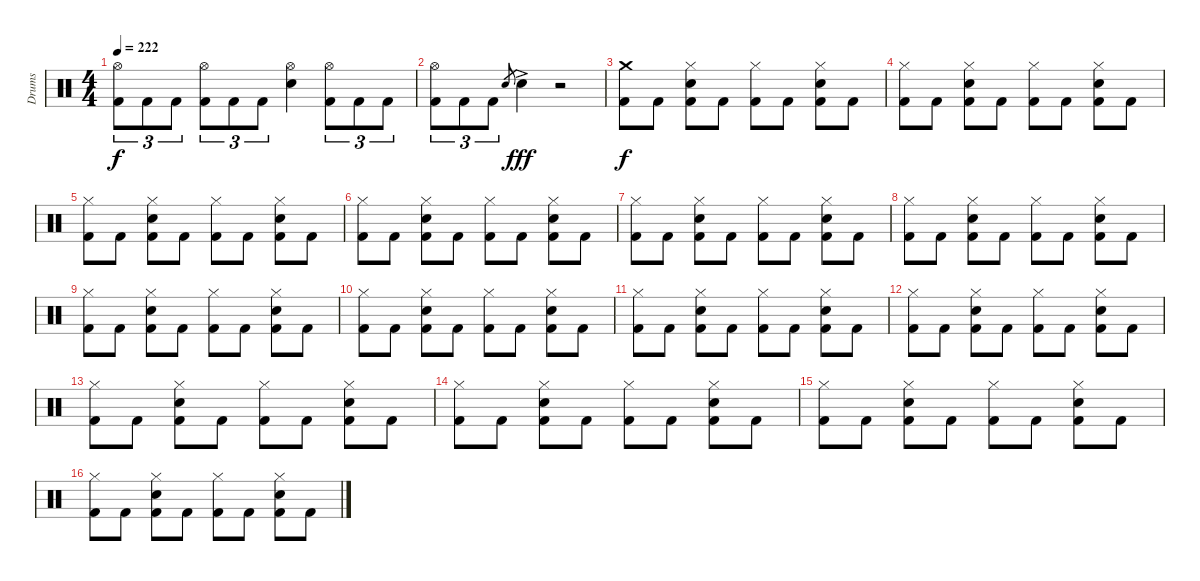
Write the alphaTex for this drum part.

\track ("Drums" "Drums") {instrument percussion}
\staff {score}
\articulation defaults
\ts (4 4)
\tempo 222
\clef neutral
\ks c
("Hi-Hat (open)" "Kick (hit) 2").8{tu (3 2) dy f} "Kick (hit) 2".8{tu (3 2)} "Kick (hit) 2".8{tu (3 2)} ("Hi-Hat (open)" "Kick (hit) 2").8{tu (3 2)} "Kick (hit) 2".8{tu (3 2)} "Kick (hit) 2".8{tu (3 2)} ("Hi-Hat (open)" "Electric Snare (hit)").4 ("Hi-Hat (open)" "Kick (hit) 2").8{tu (3 2)} "Kick (hit) 2".8{tu (3 2)} "Kick (hit) 2".8{tu (3 2)} |
("Hi-Hat (open)" "Kick (hit) 2").8{tu (3 2)} "Kick (hit) 2".8{tu (3 2)} "Kick (hit) 2".8{tu (3 2)} "Electric Snare (hit)".8{gr} "Electric Snare (hit)"{ac}.4{dy fff} r.2 |
("Crash medium (hit)" "Kick (hit) 2").8{dy f} "Kick (hit) 2".8 ("Hi-Hat (closed)" "Electric Snare (hit)" "Kick (hit) 2").8 "Kick (hit) 2".8 ("Hi-Hat (closed)" "Kick (hit) 2").8 "Kick (hit) 2".8 ("Hi-Hat (closed)" "Electric Snare (hit)" "Kick (hit) 2").8 "Kick (hit) 2".8 |
("Hi-Hat (closed)" "Kick (hit) 2").8 "Kick (hit) 2".8 ("Hi-Hat (closed)" "Electric Snare (hit)" "Kick (hit) 2").8 "Kick (hit) 2".8 ("Hi-Hat (closed)" "Kick (hit) 2").8 "Kick (hit) 2".8 ("Hi-Hat (closed)" "Electric Snare (hit)" "Kick (hit) 2").8 "Kick (hit) 2".8 |
("Hi-Hat (closed)" "Kick (hit) 2").8 "Kick (hit) 2".8 ("Hi-Hat (closed)" "Electric Snare (hit)" "Kick (hit) 2").8 "Kick (hit) 2".8 ("Hi-Hat (closed)" "Kick (hit) 2").8 "Kick (hit) 2".8 ("Hi-Hat (closed)" "Electric Snare (hit)" "Kick (hit) 2").8 "Kick (hit) 2".8 |
("Hi-Hat (closed)" "Kick (hit) 2").8 "Kick (hit) 2".8 ("Hi-Hat (closed)" "Electric Snare (hit)" "Kick (hit) 2").8 "Kick (hit) 2".8 ("Hi-Hat (closed)" "Kick (hit) 2").8 "Kick (hit) 2".8 ("Hi-Hat (closed)" "Electric Snare (hit)" "Kick (hit) 2").8 "Kick (hit) 2".8 |
("Hi-Hat (closed)" "Kick (hit) 2").8 "Kick (hit) 2".8 ("Hi-Hat (closed)" "Electric Snare (hit)" "Kick (hit) 2").8 "Kick (hit) 2".8 ("Hi-Hat (closed)" "Kick (hit) 2").8 "Kick (hit) 2".8 ("Hi-Hat (closed)" "Electric Snare (hit)" "Kick (hit) 2").8 "Kick (hit) 2".8 |
("Hi-Hat (closed)" "Kick (hit) 2").8 "Kick (hit) 2".8 ("Hi-Hat (closed)" "Electric Snare (hit)" "Kick (hit) 2").8 "Kick (hit) 2".8 ("Hi-Hat (closed)" "Kick (hit) 2").8 "Kick (hit) 2".8 ("Hi-Hat (closed)" "Electric Snare (hit)" "Kick (hit) 2").8 "Kick (hit) 2".8 |
("Hi-Hat (closed)" "Kick (hit) 2").8 "Kick (hit) 2".8 ("Hi-Hat (closed)" "Electric Snare (hit)" "Kick (hit) 2").8 "Kick (hit) 2".8 ("Hi-Hat (closed)" "Kick (hit) 2").8 "Kick (hit) 2".8 ("Hi-Hat (closed)" "Electric Snare (hit)" "Kick (hit) 2").8 "Kick (hit) 2".8 |
("Hi-Hat (closed)" "Kick (hit) 2").8 "Kick (hit) 2".8 ("Hi-Hat (closed)" "Electric Snare (hit)" "Kick (hit) 2").8 "Kick (hit) 2".8 ("Hi-Hat (closed)" "Kick (hit) 2").8 "Kick (hit) 2".8 ("Hi-Hat (closed)" "Electric Snare (hit)" "Kick (hit) 2").8 "Kick (hit) 2".8 |
("Hi-Hat (closed)" "Kick (hit) 2").8 "Kick (hit) 2".8 ("Hi-Hat (closed)" "Electric Snare (hit)" "Kick (hit) 2").8 "Kick (hit) 2".8 ("Hi-Hat (closed)" "Kick (hit) 2").8 "Kick (hit) 2".8 ("Hi-Hat (closed)" "Electric Snare (hit)" "Kick (hit) 2").8 "Kick (hit) 2".8 |
("Hi-Hat (closed)" "Kick (hit) 2").8 "Kick (hit) 2".8 ("Hi-Hat (closed)" "Electric Snare (hit)" "Kick (hit) 2").8 "Kick (hit) 2".8 ("Hi-Hat (closed)" "Kick (hit) 2").8 "Kick (hit) 2".8 ("Hi-Hat (closed)" "Electric Snare (hit)" "Kick (hit) 2").8 "Kick (hit) 2".8 |
("Hi-Hat (closed)" "Kick (hit) 2").8 "Kick (hit) 2".8 ("Hi-Hat (closed)" "Electric Snare (hit)" "Kick (hit) 2").8 "Kick (hit) 2".8 ("Hi-Hat (closed)" "Kick (hit) 2").8 "Kick (hit) 2".8 ("Hi-Hat (closed)" "Electric Snare (hit)" "Kick (hit) 2").8 "Kick (hit) 2".8 |
("Hi-Hat (closed)" "Kick (hit) 2").8 "Kick (hit) 2".8 ("Hi-Hat (closed)" "Electric Snare (hit)" "Kick (hit) 2").8 "Kick (hit) 2".8 ("Hi-Hat (closed)" "Kick (hit) 2").8 "Kick (hit) 2".8 ("Hi-Hat (closed)" "Electric Snare (hit)" "Kick (hit) 2").8 "Kick (hit) 2".8 |
("Hi-Hat (closed)" "Kick (hit) 2").8 "Kick (hit) 2".8 ("Hi-Hat (closed)" "Electric Snare (hit)" "Kick (hit) 2").8 "Kick (hit) 2".8 ("Hi-Hat (closed)" "Kick (hit) 2").8 "Kick (hit) 2".8 ("Hi-Hat (closed)" "Electric Snare (hit)" "Kick (hit) 2").8 "Kick (hit) 2".8 |
("Hi-Hat (closed)" "Kick (hit) 2").8 "Kick (hit) 2".8 ("Hi-Hat (closed)" "Electric Snare (hit)" "Kick (hit) 2").8 "Kick (hit) 2".8 ("Hi-Hat (closed)" "Kick (hit) 2").8 "Kick (hit) 2".8 ("Hi-Hat (closed)" "Electric Snare (hit)" "Kick (hit) 2").8 "Kick (hit) 2".8
